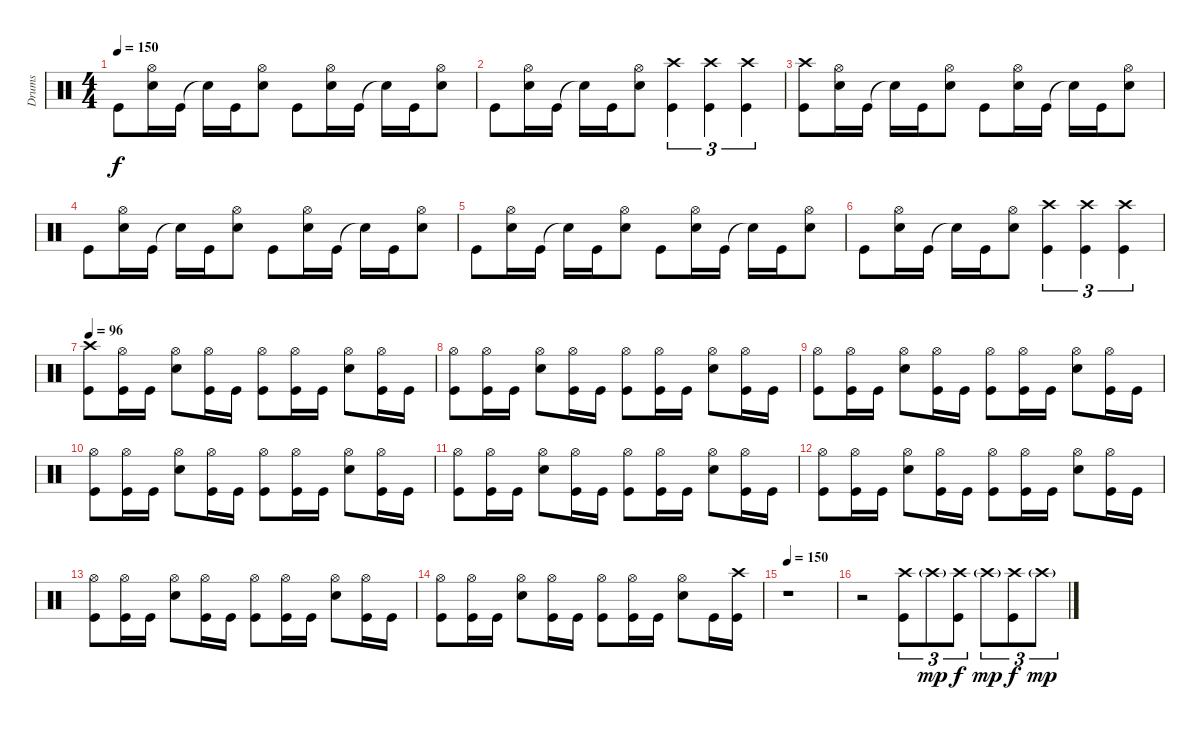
\track ("Drums" "Drums") {instrument percussion}
\staff {score}
\articulation defaults
\ts (4 4)
\tempo 150
\clef neutral
\ks c "Kick (hit)".8{dy f}
("Snare (hit) 2" "Hi-Hat (open)").16 "Kick (hit)".16 "Snare (hit)"{t}.16 "Kick (hit)".16 ("Snare (hit) 2" "Hi-Hat (open)").8 "Kick (hit)".8 ("Snare (hit) 2" "Hi-Hat (open)").16 "Kick (hit)".16 "Snare (hit)"{t}.16 "Kick (hit)".16 ("Snare (hit) 2" "Hi-Hat (open)").8 |
"Kick (hit)".8 ("Snare (hit) 2" "Hi-Hat (open)").16 "Kick (hit)".16 "Snare (hit)"{t}.16 "Kick (hit)".16 ("Snare (hit) 2" "Hi-Hat (open)").8 ("Kick (hit)" "Crash high (hit)").4{tu (3 2)} ("Kick (hit)" "Crash high (hit)").4{tu (3 2)} ("Kick (hit)" "Crash high (hit)").4{tu (3 2)} |
("Kick (hit)" "Crash high (hit)").8 ("Snare (hit) 2" "Hi-Hat (open)").16 "Kick (hit)".16 "Snare (hit)"{t}.16 "Kick (hit)".16 ("Snare (hit) 2" "Hi-Hat (open)").8 "Kick (hit)".8 ("Snare (hit) 2" "Hi-Hat (open)").16 "Kick (hit)".16 "Snare (hit)"{t}.16 "Kick (hit)".16 ("Snare (hit) 2" "Hi-Hat (open)").8 |
"Kick (hit)".8 ("Snare (hit) 2" "Hi-Hat (open)").16 "Kick (hit)".16 "Snare (hit)"{t}.16 "Kick (hit)".16 ("Snare (hit) 2" "Hi-Hat (open)").8 "Kick (hit)".8 ("Snare (hit) 2" "Hi-Hat (open)").16 "Kick (hit)".16 "Snare (hit)"{t}.16 "Kick (hit)".16 ("Snare (hit) 2" "Hi-Hat (open)").8 |
"Kick (hit)".8 ("Snare (hit) 2" "Hi-Hat (open)").16 "Kick (hit)".16 "Snare (hit)"{t}.16 "Kick (hit)".16 ("Snare (hit) 2" "Hi-Hat (open)").8 "Kick (hit)".8 ("Snare (hit) 2" "Hi-Hat (open)").16 "Kick (hit)".16 "Snare (hit)"{t}.16 "Kick (hit)".16 ("Snare (hit) 2" "Hi-Hat (open)").8 |
"Kick (hit)".8 ("Snare (hit) 2" "Hi-Hat (open)").16 "Kick (hit)".16 "Snare (hit)"{t}.16 "Kick (hit)".16 ("Snare (hit) 2" "Hi-Hat (open)").8 ("Kick (hit)" "Crash high (hit)").4{tu (3 2)} ("Kick (hit)" "Crash high (hit)").4{tu (3 2)} ("Kick (hit)" "Crash high (hit)").4{tu (3 2)} |
\tempo 96
("Kick (hit)" "Crash high (hit)").8 ("Kick (hit)" "Hi-Hat (open)").16 "Kick (hit)".16 ("Snare (hit) 2" "Hi-Hat (open)").8 ("Kick (hit)" "Hi-Hat (open)").16 "Kick (hit)".16 ("Kick (hit)" "Hi-Hat (open)").8 ("Kick (hit)" "Hi-Hat (open)").16 "Kick (hit)".16 ("Snare (hit) 2" "Hi-Hat (open)").8 ("Kick (hit)" "Hi-Hat (open)").16 "Kick (hit)".16 |
("Kick (hit)" "Hi-Hat (open)").8 ("Kick (hit)" "Hi-Hat (open)").16 "Kick (hit)".16 ("Snare (hit) 2" "Hi-Hat (open)").8 ("Kick (hit)" "Hi-Hat (open)").16 "Kick (hit)".16 ("Kick (hit)" "Hi-Hat (open)").8 ("Kick (hit)" "Hi-Hat (open)").16 "Kick (hit)".16 ("Snare (hit) 2" "Hi-Hat (open)").8 ("Kick (hit)" "Hi-Hat (open)").16 "Kick (hit)".16 |
("Kick (hit)" "Hi-Hat (open)").8 ("Kick (hit)" "Hi-Hat (open)").16 "Kick (hit)".16 ("Snare (hit) 2" "Hi-Hat (open)").8 ("Kick (hit)" "Hi-Hat (open)").16 "Kick (hit)".16 ("Kick (hit)" "Hi-Hat (open)").8 ("Kick (hit)" "Hi-Hat (open)").16 "Kick (hit)".16 ("Snare (hit) 2" "Hi-Hat (open)").8 ("Kick (hit)" "Hi-Hat (open)").16 "Kick (hit)".16 |
("Kick (hit)" "Hi-Hat (open)").8 ("Kick (hit)" "Hi-Hat (open)").16 "Kick (hit)".16 ("Snare (hit) 2" "Hi-Hat (open)").8 ("Kick (hit)" "Hi-Hat (open)").16 "Kick (hit)".16 ("Kick (hit)" "Hi-Hat (open)").8 ("Kick (hit)" "Hi-Hat (open)").16 "Kick (hit)".16 ("Snare (hit) 2" "Hi-Hat (open)").8 ("Kick (hit)" "Hi-Hat (open)").16 "Kick (hit)".16 |
("Kick (hit)" "Hi-Hat (open)").8 ("Kick (hit)" "Hi-Hat (open)").16 "Kick (hit)".16 ("Snare (hit) 2" "Hi-Hat (open)").8 ("Kick (hit)" "Hi-Hat (open)").16 "Kick (hit)".16 ("Kick (hit)" "Hi-Hat (open)").8 ("Kick (hit)" "Hi-Hat (open)").16 "Kick (hit)".16 ("Snare (hit) 2" "Hi-Hat (open)").8 ("Kick (hit)" "Hi-Hat (open)").16 "Kick (hit)".16 |
("Kick (hit)" "Hi-Hat (open)").8 ("Kick (hit)" "Hi-Hat (open)").16 "Kick (hit)".16 ("Snare (hit) 2" "Hi-Hat (open)").8 ("Kick (hit)" "Hi-Hat (open)").16 "Kick (hit)".16 ("Kick (hit)" "Hi-Hat (open)").8 ("Kick (hit)" "Hi-Hat (open)").16 "Kick (hit)".16 ("Snare (hit) 2" "Hi-Hat (open)").8 ("Kick (hit)" "Hi-Hat (open)").16 "Kick (hit)".16 |
("Kick (hit)" "Hi-Hat (open)").8 ("Kick (hit)" "Hi-Hat (open)").16 "Kick (hit)".16 ("Snare (hit) 2" "Hi-Hat (open)").8 ("Kick (hit)" "Hi-Hat (open)").16 "Kick (hit)".16 ("Kick (hit)" "Hi-Hat (open)").8 ("Kick (hit)" "Hi-Hat (open)").16 "Kick (hit)".16 ("Snare (hit) 2" "Hi-Hat (open)").8 ("Kick (hit)" "Hi-Hat (open)").16 "Kick (hit)".16 |
("Kick (hit)" "Hi-Hat (open)").8 ("Kick (hit)" "Hi-Hat (open)").16 "Kick (hit)".16 ("Snare (hit) 2" "Hi-Hat (open)").8 ("Kick (hit)" "Hi-Hat (open)").16 "Kick (hit)".16 ("Kick (hit)" "Hi-Hat (open)").8 ("Kick (hit)" "Hi-Hat (open)").16 "Kick (hit)".16 ("Snare (hit) 2" "Hi-Hat (open)").8 "Kick (hit)".16 ("Kick (hit)" "Crash high (hit)").16 |
\tempo 150
r.1 |
r.2 ("Kick (hit)" "Crash high (hit)").8{tu (3 2)} "Crash high (hit)"{g}.8{tu (3 2) dy mp} ("Kick (hit)" "Crash high (hit)").8{tu (3 2) dy f} "Crash high (hit)"{g}.8{tu (3 2) dy mp} ("Kick (hit)" "Crash high (hit)").8{tu (3 2) dy f} "Crash high (hit)"{g}.8{tu (3 2) dy mp}
